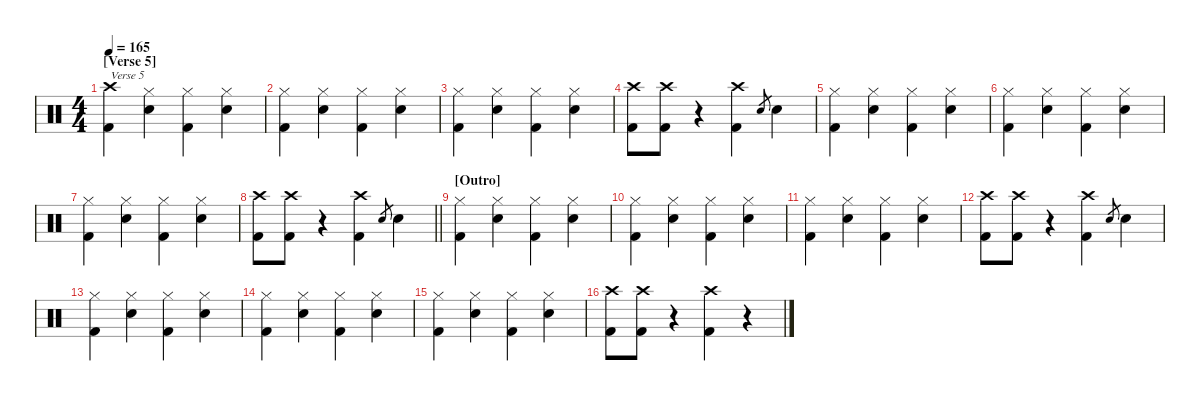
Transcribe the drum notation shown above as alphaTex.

\defaultSystemsLayout 4
\hideDynamics
\bracketExtendMode nobrackets
\singleTrackTrackNamePolicy hidden
\multiTrackTrackNamePolicy hidden
\firstSystemTrackNameMode fullname
\firstSystemTrackNameOrientation horizontal
\otherSystemsTrackNameOrientation horizontal
\track ("drums" "drm.") {instrument percussion}
\staff {score}
\articulation defaults
\ts (4 4)
\section ("" "[Verse 5]")
\tempo 165
\clef neutral
\ks c
("Crash high (hit)" "Kick (hit) 2").4{txt "Verse 5" dy fff beam Down} ("Hi-Hat (closed)" "Snare (hit) 2").4{dy f beam Down} ("Hi-Hat (closed)" "Kick (hit) 2").4{beam Down} ("Hi-Hat (closed)" "Snare (hit) 2").4{beam Down} |
("Hi-Hat (closed)" "Kick (hit) 2").4{beam Down} ("Hi-Hat (closed)" "Snare (hit) 2").4{beam Down} ("Hi-Hat (closed)" "Kick (hit) 2").4{beam Down} ("Hi-Hat (closed)" "Snare (hit) 2").4{beam Down} |
("Hi-Hat (closed)" "Kick (hit) 2").4{beam Down} ("Hi-Hat (closed)" "Snare (hit) 2").4{beam Down} ("Hi-Hat (closed)" "Kick (hit) 2").4{beam Down} ("Hi-Hat (closed)" "Snare (hit) 2").4{beam Down} |
("Crash high (hit)" "Kick (hit) 2").8{dy fff beam Down} ("Crash high (hit)" "Kick (hit) 2").8{beam Down} r.4{beam Down} ("Crash high (hit)" "Kick (hit) 2").4{beam Down} "Snare (hit) 2".8{gr dy mf beam Up} "Snare (hit) 2".4{dy f beam Down} |
("Hi-Hat (closed)" "Kick (hit) 2").4{beam Down} ("Hi-Hat (closed)" "Snare (hit) 2").4{beam Down} ("Hi-Hat (closed)" "Kick (hit) 2").4{beam Down} ("Hi-Hat (closed)" "Snare (hit) 2").4{beam Down} |
("Hi-Hat (closed)" "Kick (hit) 2").4{beam Down} ("Hi-Hat (closed)" "Snare (hit) 2").4{beam Down} ("Hi-Hat (closed)" "Kick (hit) 2").4{beam Down} ("Hi-Hat (closed)" "Snare (hit) 2").4{beam Down} |
("Hi-Hat (closed)" "Kick (hit) 2").4{beam Down} ("Hi-Hat (closed)" "Snare (hit) 2").4{beam Down} ("Hi-Hat (closed)" "Kick (hit) 2").4{beam Down} ("Hi-Hat (closed)" "Snare (hit) 2").4{beam Down} |
\barLineRight lightlight
("Crash high (hit)" "Kick (hit) 2").8{dy fff beam Down} ("Crash high (hit)" "Kick (hit) 2").8{beam Down} r.4{beam Down} ("Crash high (hit)" "Kick (hit) 2").4{beam Down} "Snare (hit) 2".8{gr dy mf beam Up} "Snare (hit) 2".4{dy f beam Down} |
\section ("" "[Outro]")
("Hi-Hat (closed)" "Kick (hit) 2").4{beam Down} ("Hi-Hat (closed)" "Snare (hit) 2").4{beam Down} ("Hi-Hat (closed)" "Kick (hit) 2").4{beam Down} ("Hi-Hat (closed)" "Snare (hit) 2").4{beam Down} |
("Hi-Hat (closed)" "Kick (hit) 2").4{beam Down} ("Hi-Hat (closed)" "Snare (hit) 2").4{beam Down} ("Hi-Hat (closed)" "Kick (hit) 2").4{beam Down} ("Hi-Hat (closed)" "Snare (hit) 2").4{beam Down} |
("Hi-Hat (closed)" "Kick (hit) 2").4{beam Down} ("Hi-Hat (closed)" "Snare (hit) 2").4{beam Down} ("Hi-Hat (closed)" "Kick (hit) 2").4{beam Down} ("Hi-Hat (closed)" "Snare (hit) 2").4{beam Down} |
("Crash high (hit)" "Kick (hit) 2").8{dy fff beam Down} ("Crash high (hit)" "Kick (hit) 2").8{beam Down} r.4{beam Down} ("Crash high (hit)" "Kick (hit) 2").4{beam Down} "Snare (hit) 2".8{gr dy mf beam Up} "Snare (hit) 2".4{dy f beam Down} |
("Hi-Hat (closed)" "Kick (hit) 2").4{beam Down} ("Hi-Hat (closed)" "Snare (hit) 2").4{beam Down} ("Hi-Hat (closed)" "Kick (hit) 2").4{beam Down} ("Hi-Hat (closed)" "Snare (hit) 2").4{beam Down} |
("Hi-Hat (closed)" "Kick (hit) 2").4{beam Down} ("Hi-Hat (closed)" "Snare (hit) 2").4{beam Down} ("Hi-Hat (closed)" "Kick (hit) 2").4{beam Down} ("Hi-Hat (closed)" "Snare (hit) 2").4{beam Down} |
("Hi-Hat (closed)" "Kick (hit) 2").4{beam Down} ("Hi-Hat (closed)" "Snare (hit) 2").4{beam Down} ("Hi-Hat (closed)" "Kick (hit) 2").4{beam Down} ("Hi-Hat (closed)" "Snare (hit) 2").4{beam Down} |
("Crash high (hit)" "Kick (hit) 2").8{dy fff beam Down} ("Crash high (hit)" "Kick (hit) 2").8{beam Down} r.4{beam Down} ("Crash high (hit)" "Kick (hit) 2").4{beam Down} r.4{beam Down}
